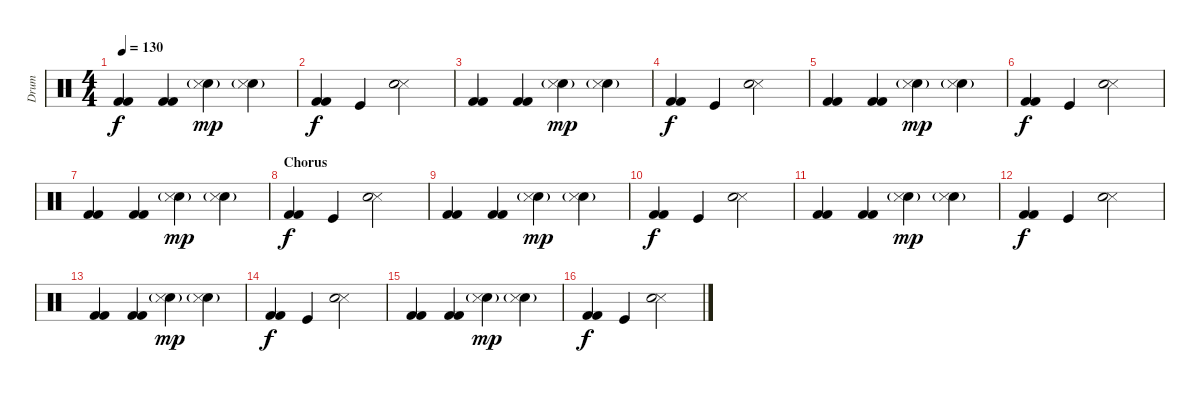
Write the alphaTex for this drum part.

\track ("Drum" "Drum") {instrument percussion}
\staff {score}
\articulation defaults
\ts (4 4)
\tempo 130
\clef neutral
\ks c
("Kick (hit) 2" "Kick (hit) 2").4{dy f} ("Kick (hit) 2" "Kick (hit) 2").4 ("Snare (hit) 2" "Snare (side stick) 3"{g}).4{dy mp} ("Snare (hit) 2"{g} "Snare (side stick) 3").4 |
("Kick (hit) 2" "Kick (hit) 2").4{dy f} "Kick (hit)".4 ("Snare (side stick) 3" "Snare (hit) 2").2 |
("Kick (hit) 2" "Kick (hit) 2").4 ("Kick (hit) 2" "Kick (hit) 2").4 ("Snare (hit) 2" "Snare (side stick) 3"{g}).4{dy mp} ("Snare (hit) 2"{g} "Snare (side stick) 3").4 |
("Kick (hit) 2" "Kick (hit) 2").4{dy f} "Kick (hit)".4 ("Snare (side stick) 3" "Snare (hit) 2").2 |
("Kick (hit) 2" "Kick (hit) 2").4 ("Kick (hit) 2" "Kick (hit) 2").4 ("Snare (hit) 2" "Snare (side stick) 3"{g}).4{dy mp} ("Snare (hit) 2"{g} "Snare (side stick) 3").4 |
("Kick (hit) 2" "Kick (hit) 2").4{dy f} "Kick (hit)".4 ("Snare (side stick) 3" "Snare (hit) 2").2 |
("Kick (hit) 2" "Kick (hit) 2").4 ("Kick (hit) 2" "Kick (hit) 2").4 ("Snare (hit) 2" "Snare (side stick) 3"{g}).4{dy mp} ("Snare (hit) 2"{g} "Snare (side stick) 3").4 |
\section ("" "Chorus")
("Kick (hit) 2" "Kick (hit) 2").4{dy f} "Kick (hit)".4 ("Snare (side stick) 3" "Snare (hit) 2").2 |
("Kick (hit) 2" "Kick (hit) 2").4 ("Kick (hit) 2" "Kick (hit) 2").4 ("Snare (hit) 2" "Snare (side stick) 3"{g}).4{dy mp} ("Snare (hit) 2"{g} "Snare (side stick) 3").4 |
("Kick (hit) 2" "Kick (hit) 2").4{dy f} "Kick (hit)".4 ("Snare (side stick) 3" "Snare (hit) 2").2 |
("Kick (hit) 2" "Kick (hit) 2").4 ("Kick (hit) 2" "Kick (hit) 2").4 ("Snare (hit) 2" "Snare (side stick) 3"{g}).4{dy mp} ("Snare (hit) 2"{g} "Snare (side stick) 3").4 |
("Kick (hit) 2" "Kick (hit) 2").4{dy f} "Kick (hit)".4 ("Snare (side stick) 3" "Snare (hit) 2").2 |
("Kick (hit) 2" "Kick (hit) 2").4 ("Kick (hit) 2" "Kick (hit) 2").4 ("Snare (hit) 2" "Snare (side stick) 3"{g}).4{dy mp} ("Snare (hit) 2"{g} "Snare (side stick) 3").4 |
("Kick (hit) 2" "Kick (hit) 2").4{dy f} "Kick (hit)".4 ("Snare (side stick) 3" "Snare (hit) 2").2 |
("Kick (hit) 2" "Kick (hit) 2").4 ("Kick (hit) 2" "Kick (hit) 2").4 ("Snare (hit) 2" "Snare (side stick) 3"{g}).4{dy mp} ("Snare (hit) 2"{g} "Snare (side stick) 3").4 |
("Kick (hit) 2" "Kick (hit) 2").4{dy f} "Kick (hit)".4 ("Snare (side stick) 3" "Snare (hit) 2").2
